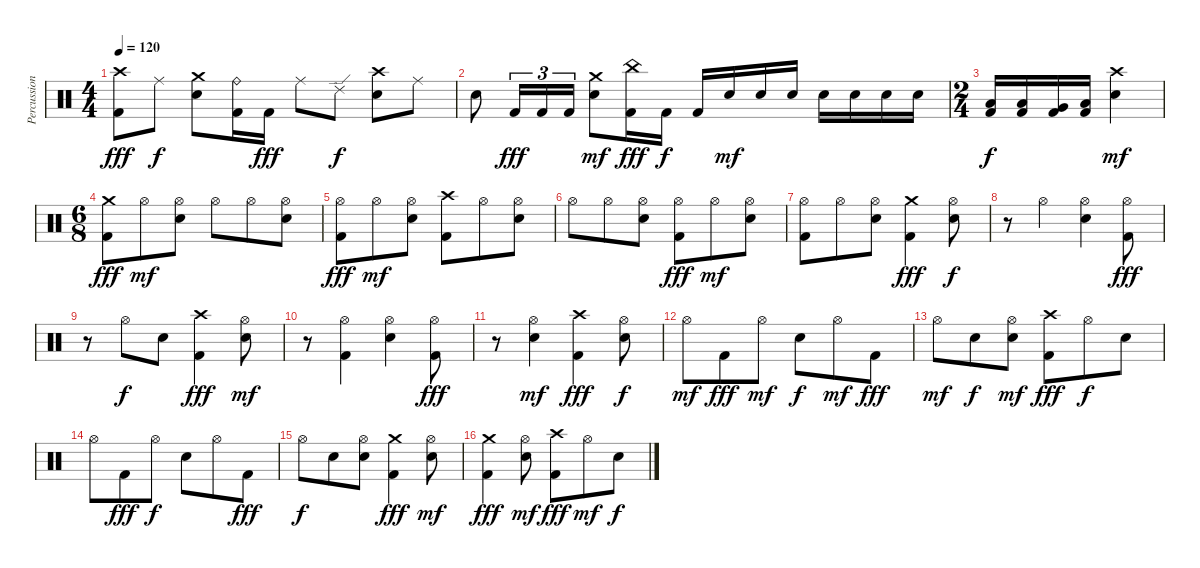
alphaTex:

\track ("Percussion" "Percussion") {instrument percussion}
\staff {score}
\articulation defaults
\ts (4 4)
\tempo 120
\clef neutral
\ks c
("Crash high (hit)" "Kick (hit) 2").8{dy fff} "Ride (middle)".8{dy f} ("Crash medium (hit)" "Electric Snare (hit)").8 ("Ride (bell)" "Kick (hit) 2").16 "Kick (hit) 2".16{dy fff} "Ride (middle)".8 "Ride (edge) 2".8{dy f} ("Crash high (hit)" "Electric Snare (hit)").8 "Ride (middle)".8 |
"Electric Snare (hit)".8 "Kick (hit) 2".16{tu (3 2) dy fff} "Kick (hit) 2".16{tu (3 2)} "Kick (hit) 2".16{tu (3 2)} ("Crash medium (hit)" "Electric Snare (hit)").8{dy mf} ("China (hit)" "Kick (hit) 2").16{dy fff} "Kick (hit) 2".16{dy f} "Kick (hit) 2".16 "Electric Snare (hit)".16{dy mf} "Electric Snare (hit)".16 "Electric Snare (hit)".16 "Electric Snare (hit)".16 "Electric Snare (hit)".16 "Electric Snare (hit)".16 "Electric Snare (hit)".16 |
\ts (2 4)
("Low Tom (hit)" "Kick (hit) 2").16{dy f} ("Low Tom (hit)" "Kick (hit) 2").16 ("Very Low Tom (hit)" "Kick (hit) 2").16 ("Low Floor Tom (hit)" "Kick (hit) 2").16 ("Crash high (hit)" "Electric Snare (hit)").4{dy mf} |
\ts (6 8)
("Crash medium (hit)" "Kick (hit) 2").8{dy fff} "Hi-Hat (open)".8{dy mf} ("Hi-Hat (open)" "Electric Snare (hit)").8 "Hi-Hat (open)".8 "Hi-Hat (open)".8 ("Hi-Hat (open)" "Electric Snare (hit)").8 |
("Hi-Hat (open)" "Kick (hit) 2").8{dy fff} "Hi-Hat (open)".8{dy mf} ("Hi-Hat (open)" "Electric Snare (hit)").8 ("Crash high (hit)" "Kick (hit) 2").8 "Hi-Hat (open)".8 ("Hi-Hat (open)" "Electric Snare (hit)").8 |
"Hi-Hat (open)".8 "Hi-Hat (open)".8 ("Hi-Hat (open)" "Electric Snare (hit)").8 ("Hi-Hat (open)" "Kick (hit) 2").8{dy fff} "Hi-Hat (open)".8{dy mf} ("Hi-Hat (open)" "Electric Snare (hit)").8 |
("Hi-Hat (open)" "Kick (hit) 2").8 "Hi-Hat (open)".8 ("Hi-Hat (open)" "Electric Snare (hit)").8 ("Crash medium (hit)" "Kick (hit) 2").4{dy fff} ("Hi-Hat (open)" "Electric Snare (hit)").8{dy f} |
r.8 "Hi-Hat (open)".4 ("Hi-Hat (open)" "Electric Snare (hit)").4 ("Hi-Hat (open)" "Kick (hit) 2").8{dy fff} |
r.8 "Hi-Hat (open)".8{dy f} "Electric Snare (hit)".8 ("Crash high (hit)" "Kick (hit) 2").4{dy fff} ("Hi-Hat (open)" "Electric Snare (hit)").8{dy mf} |
r.8 ("Hi-Hat (open)" "Kick (hit) 2").4 ("Hi-Hat (open)" "Electric Snare (hit)").4 ("Hi-Hat (open)" "Kick (hit) 2").8{dy fff} |
r.8 ("Hi-Hat (open)" "Electric Snare (hit)").4{dy mf} ("Crash high (hit)" "Kick (hit) 2").4{dy fff} ("Hi-Hat (open)" "Electric Snare (hit)").8{dy f} |
"Hi-Hat (open)".8{dy mf} "Kick (hit) 2".8{dy fff} "Hi-Hat (open)".8{dy mf} "Electric Snare (hit)".8{dy f} "Hi-Hat (open)".8{dy mf} "Kick (hit) 2".8{dy fff} |
"Hi-Hat (open)".8{dy mf} "Electric Snare (hit)".8{dy f} ("Hi-Hat (open)" "Electric Snare (hit)").8{dy mf} ("Crash high (hit)" "Kick (hit) 2").8{dy fff} "Hi-Hat (open)".8{dy f} "Electric Snare (hit)".8 |
"Hi-Hat (open)".8 "Kick (hit) 2".8{dy fff} "Hi-Hat (open)".8{dy f} "Electric Snare (hit)".8 "Hi-Hat (open)".8 "Kick (hit) 2".8{dy fff} |
"Hi-Hat (open)".8{dy f} "Electric Snare (hit)".8 ("Hi-Hat (open)" "Electric Snare (hit)").8 ("Crash medium (hit)" "Kick (hit) 2").4{dy fff} ("Hi-Hat (open)" "Electric Snare (hit)").8{dy mf} |
("Crash medium (hit)" "Kick (hit) 2").4{dy fff} ("Hi-Hat (open)" "Electric Snare (hit)").8{dy mf} ("Crash high (hit)" "Kick (hit) 2").8{dy fff} "Hi-Hat (open)".8{dy mf} "Electric Snare (hit)".8{dy f}
